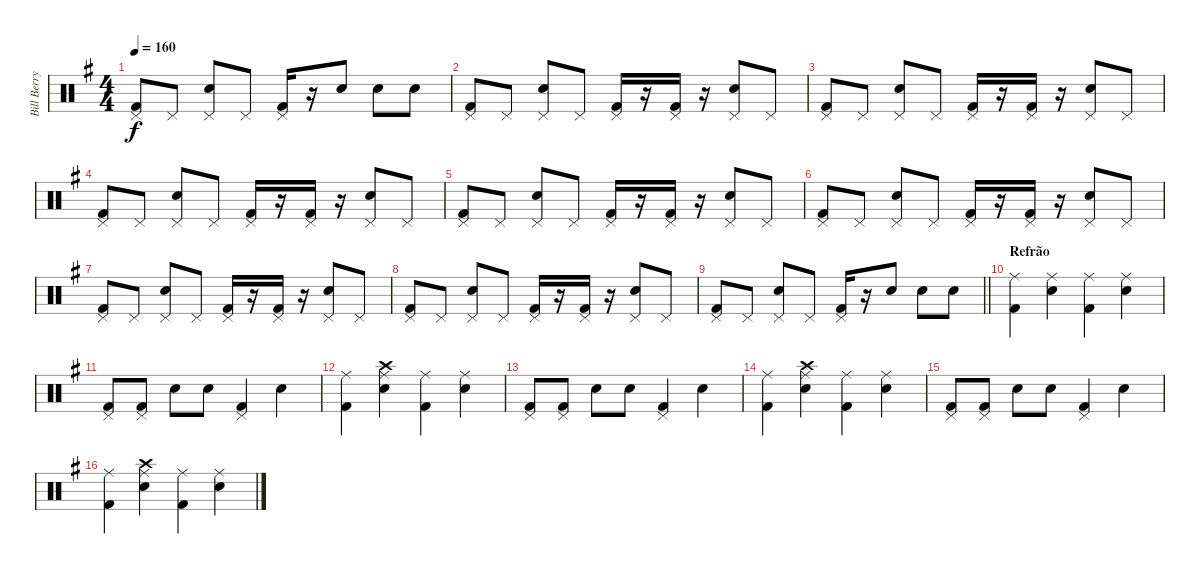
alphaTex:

\track ("Bill Berry" "Bill Berry") {instrument percussion}
\staff {score}
\articulation defaults
\ts (4 4)
\tempo 160
\clef neutral
\ks g
("Kick (hit) 2" "Pedal Hi-Hat (hit)").8{dy f} "Pedal Hi-Hat (hit)".8 ("Snare (hit) 2" "Pedal Hi-Hat (hit)").8 "Pedal Hi-Hat (hit)".8 ("Kick (hit) 2" "Pedal Hi-Hat (hit)").16 r.16 "Snare (hit) 2".8 "Snare (hit) 2".8 "Snare (hit) 2".8 |
("Kick (hit) 2" "Pedal Hi-Hat (hit)").8 "Pedal Hi-Hat (hit)".8 ("Snare (hit) 2" "Pedal Hi-Hat (hit)").8 "Pedal Hi-Hat (hit)".8 ("Kick (hit) 2" "Pedal Hi-Hat (hit)").16 r.16 ("Kick (hit) 2" "Pedal Hi-Hat (hit)").16 r.16 ("Snare (hit) 2" "Pedal Hi-Hat (hit)").8 "Pedal Hi-Hat (hit)".8 |
("Kick (hit) 2" "Pedal Hi-Hat (hit)").8 "Pedal Hi-Hat (hit)".8 ("Snare (hit) 2" "Pedal Hi-Hat (hit)").8 "Pedal Hi-Hat (hit)".8 ("Kick (hit) 2" "Pedal Hi-Hat (hit)").16 r.16 ("Kick (hit) 2" "Pedal Hi-Hat (hit)").16 r.16 ("Snare (hit) 2" "Pedal Hi-Hat (hit)").8 "Pedal Hi-Hat (hit)".8 |
("Kick (hit) 2" "Pedal Hi-Hat (hit)").8 "Pedal Hi-Hat (hit)".8 ("Snare (hit) 2" "Pedal Hi-Hat (hit)").8 "Pedal Hi-Hat (hit)".8 ("Kick (hit) 2" "Pedal Hi-Hat (hit)").16 r.16 ("Kick (hit) 2" "Pedal Hi-Hat (hit)").16 r.16 ("Snare (hit) 2" "Pedal Hi-Hat (hit)").8 "Pedal Hi-Hat (hit)".8 |
("Kick (hit) 2" "Pedal Hi-Hat (hit)").8 "Pedal Hi-Hat (hit)".8 ("Snare (hit) 2" "Pedal Hi-Hat (hit)").8 "Pedal Hi-Hat (hit)".8 ("Kick (hit) 2" "Pedal Hi-Hat (hit)").16 r.16 ("Kick (hit) 2" "Pedal Hi-Hat (hit)").16 r.16 ("Snare (hit) 2" "Pedal Hi-Hat (hit)").8 "Pedal Hi-Hat (hit)".8 |
("Kick (hit) 2" "Pedal Hi-Hat (hit)").8 "Pedal Hi-Hat (hit)".8 ("Snare (hit) 2" "Pedal Hi-Hat (hit)").8 "Pedal Hi-Hat (hit)".8 ("Kick (hit) 2" "Pedal Hi-Hat (hit)").16 r.16 ("Kick (hit) 2" "Pedal Hi-Hat (hit)").16 r.16 ("Snare (hit) 2" "Pedal Hi-Hat (hit)").8 "Pedal Hi-Hat (hit)".8 |
("Kick (hit) 2" "Pedal Hi-Hat (hit)").8 "Pedal Hi-Hat (hit)".8 ("Snare (hit) 2" "Pedal Hi-Hat (hit)").8 "Pedal Hi-Hat (hit)".8 ("Kick (hit) 2" "Pedal Hi-Hat (hit)").16 r.16 ("Kick (hit) 2" "Pedal Hi-Hat (hit)").16 r.16 ("Snare (hit) 2" "Pedal Hi-Hat (hit)").8 "Pedal Hi-Hat (hit)".8 |
("Kick (hit) 2" "Pedal Hi-Hat (hit)").8 "Pedal Hi-Hat (hit)".8 ("Snare (hit) 2" "Pedal Hi-Hat (hit)").8 "Pedal Hi-Hat (hit)".8 ("Kick (hit) 2" "Pedal Hi-Hat (hit)").16 r.16 ("Kick (hit) 2" "Pedal Hi-Hat (hit)").16 r.16 ("Snare (hit) 2" "Pedal Hi-Hat (hit)").8 "Pedal Hi-Hat (hit)".8 |
\barLineRight lightlight
("Kick (hit) 2" "Pedal Hi-Hat (hit)").8 "Pedal Hi-Hat (hit)".8 ("Snare (hit) 2" "Pedal Hi-Hat (hit)").8 "Pedal Hi-Hat (hit)".8 ("Kick (hit) 2" "Pedal Hi-Hat (hit)").16 r.16 "Snare (hit) 2".8 "Snare (hit) 2".8 "Snare (hit) 2".8 |
\section ("" "Refrão")
("Kick (hit) 2" "Ride (middle)").4 ("Snare (hit) 2" "Ride (middle)").4 ("Kick (hit) 2" "Ride (middle)").4 ("Snare (hit) 2" "Ride (middle)").4 |
("Kick (hit) 2" "Pedal Hi-Hat (hit)").8 ("Kick (hit) 2" "Pedal Hi-Hat (hit)").8 "Snare (hit) 2".8 "Snare (hit) 2".8 ("Kick (hit) 2" "Pedal Hi-Hat (hit)").4 "Snare (hit) 2".4 |
("Kick (hit) 2" "Ride (middle)").4 ("Snare (hit) 2" "Ride (middle)" "Crash high (hit)").4 ("Kick (hit) 2" "Ride (middle)").4 ("Snare (hit) 2" "Ride (middle)").4 |
("Kick (hit) 2" "Pedal Hi-Hat (hit)").8 ("Kick (hit) 2" "Pedal Hi-Hat (hit)").8 "Snare (hit) 2".8 "Snare (hit) 2".8 ("Kick (hit) 2" "Pedal Hi-Hat (hit)").4 "Snare (hit) 2".4 |
("Kick (hit) 2" "Ride (middle)").4 ("Snare (hit) 2" "Ride (middle)" "Crash high (hit)").4 ("Kick (hit) 2" "Ride (middle)").4 ("Snare (hit) 2" "Ride (middle)").4 |
("Kick (hit) 2" "Pedal Hi-Hat (hit)").8 ("Kick (hit) 2" "Pedal Hi-Hat (hit)").8 "Snare (hit) 2".8 "Snare (hit) 2".8 ("Kick (hit) 2" "Pedal Hi-Hat (hit)").4 "Snare (hit) 2".4 |
("Kick (hit) 2" "Ride (middle)").4 ("Snare (hit) 2" "Ride (middle)" "Crash high (hit)").4 ("Kick (hit) 2" "Ride (middle)").4 ("Snare (hit) 2" "Ride (middle)").4
